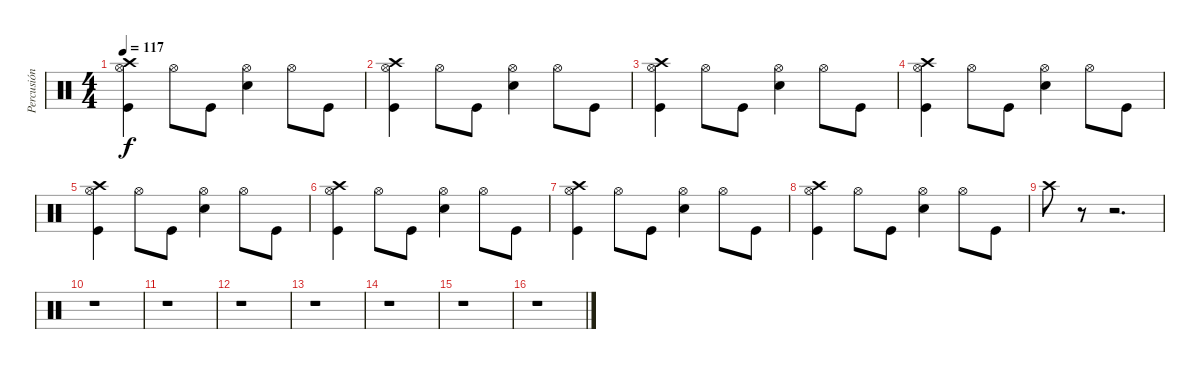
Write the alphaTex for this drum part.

\track ("Percusión" "Percusión") {instrument percussion}
\staff {score}
\articulation defaults
\ts (4 4)
\tempo 117
\clef neutral
\ks c
("Kick (hit)" "Hi-Hat (open)" "Crash high (hit)").4{dy f} "Hi-Hat (open)".8 "Kick (hit)".8 ("Hi-Hat (open)" "Snare (hit) 2").4 "Hi-Hat (open)".8 "Kick (hit)".8 |
("Kick (hit)" "Hi-Hat (open)" "Crash high (hit)").4 "Hi-Hat (open)".8 "Kick (hit)".8 ("Hi-Hat (open)" "Snare (hit) 2").4 "Hi-Hat (open)".8 "Kick (hit)".8 |
("Kick (hit)" "Hi-Hat (open)" "Crash high (hit)").4 "Hi-Hat (open)".8 "Kick (hit)".8 ("Hi-Hat (open)" "Snare (hit) 2").4 "Hi-Hat (open)".8 "Kick (hit)".8 |
("Kick (hit)" "Hi-Hat (open)" "Crash high (hit)").4 "Hi-Hat (open)".8 "Kick (hit)".8 ("Hi-Hat (open)" "Snare (hit) 2").4 "Hi-Hat (open)".8 "Kick (hit)".8 |
("Kick (hit)" "Hi-Hat (open)" "Crash high (hit)").4 "Hi-Hat (open)".8 "Kick (hit)".8 ("Hi-Hat (open)" "Snare (hit) 2").4 "Hi-Hat (open)".8 "Kick (hit)".8 |
("Kick (hit)" "Hi-Hat (open)" "Crash high (hit)").4 "Hi-Hat (open)".8 "Kick (hit)".8 ("Hi-Hat (open)" "Snare (hit) 2").4 "Hi-Hat (open)".8 "Kick (hit)".8 |
("Kick (hit)" "Hi-Hat (open)" "Crash high (hit)").4 "Hi-Hat (open)".8 "Kick (hit)".8 ("Hi-Hat (open)" "Snare (hit) 2").4 "Hi-Hat (open)".8 "Kick (hit)".8 |
("Kick (hit)" "Hi-Hat (open)" "Crash high (hit)").4 "Hi-Hat (open)".8 "Kick (hit)".8 ("Hi-Hat (open)" "Snare (hit) 2").4 "Hi-Hat (open)".8 "Kick (hit)".8 |
"Crash high (hit)".8 r.8 r.2{d} |
r.1 |
r.1 |
r.1 |
r.1 |
r.1 |
r.1 |
r.1
